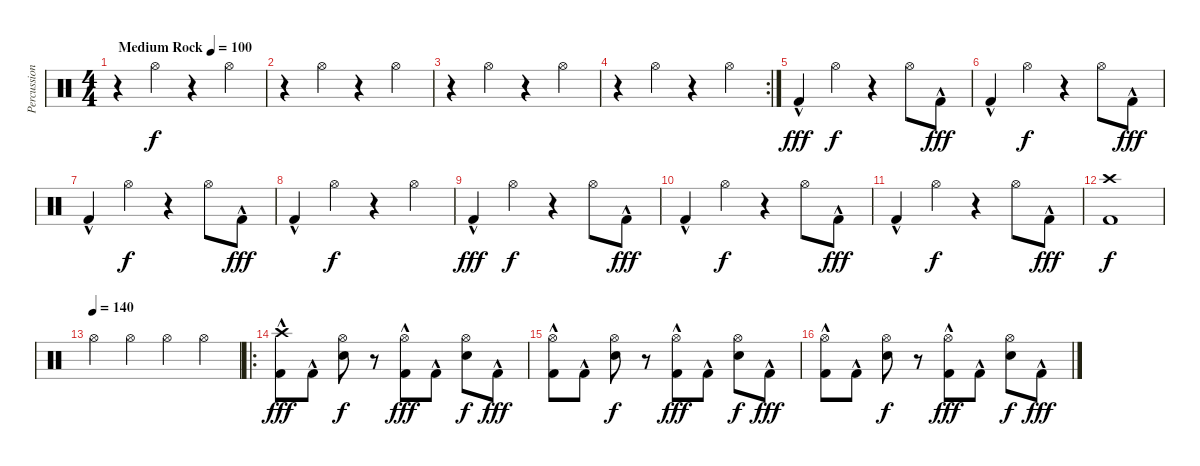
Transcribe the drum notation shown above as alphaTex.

\track ("Percussion" "Percussion") {instrument percussion}
\staff {score}
\articulation defaults
\ts (4 4)
\tempo (100 "Medium Rock")
\clef neutral
\ks c
r.4{dy f} "Hi-Hat (open)".4 r.4 "Hi-Hat (open)".4 |
r.4 "Hi-Hat (open)".4 r.4 "Hi-Hat (open)".4 |
r.4 "Hi-Hat (open)".4 r.4 "Hi-Hat (open)".4 |
\rc 2
r.4 "Hi-Hat (open)".4 r.4 "Hi-Hat (open)".4 |
"Kick (hit) 2"{hac}.4{dy fff} "Hi-Hat (open)".4{dy f} r.4 "Hi-Hat (open)".8 "Kick (hit) 2"{hac}.8{dy fff} |
"Kick (hit) 2"{hac}.4 "Hi-Hat (open)".4{dy f} r.4 "Hi-Hat (open)".8 "Kick (hit) 2"{hac}.8{dy fff} |
"Kick (hit) 2"{hac}.4 "Hi-Hat (open)".4{dy f} r.4 "Hi-Hat (open)".8 "Kick (hit) 2"{hac}.8{dy fff} |
"Kick (hit) 2"{hac}.4 "Hi-Hat (open)".4{dy f} r.4 "Hi-Hat (open)".4 |
"Kick (hit) 2"{hac}.4{dy fff} "Hi-Hat (open)".4{dy f} r.4 "Hi-Hat (open)".8 "Kick (hit) 2"{hac}.8{dy fff} |
"Kick (hit) 2"{hac}.4 "Hi-Hat (open)".4{dy f} r.4 "Hi-Hat (open)".8 "Kick (hit) 2"{hac}.8{dy fff} |
"Kick (hit) 2"{hac}.4 "Hi-Hat (open)".4{dy f} r.4 "Hi-Hat (open)".8 "Kick (hit) 2"{hac}.8{dy fff} |
("Crash high (hit)" "Kick (hit) 2").1{dy f} |
\tempo (140)
"Hi-Hat (open)".4 "Hi-Hat (open)".4 "Hi-Hat (open)".4 "Hi-Hat (open)".4 |
\ro
("Crash high (hit)" "Kick (hit) 2"{hac}).8{dy fff} "Kick (hit) 2"{hac}.8 ("Hi-Hat (open)" "Electric Snare (hit)").8{dy f} r.8 ("Hi-Hat (open)" "Kick (hit) 2"{hac}).8{dy fff} "Kick (hit) 2"{hac}.8 ("Hi-Hat (open)" "Electric Snare (hit)").8{dy f} "Kick (hit) 2"{hac}.8{dy fff} |
("Hi-Hat (open)" "Kick (hit) 2"{hac}).8 "Kick (hit) 2"{hac}.8 ("Hi-Hat (open)" "Electric Snare (hit)").8{dy f} r.8 ("Hi-Hat (open)" "Kick (hit) 2"{hac}).8{dy fff} "Kick (hit) 2"{hac}.8 ("Hi-Hat (open)" "Electric Snare (hit)").8{dy f} "Kick (hit) 2"{hac}.8{dy fff} |
("Hi-Hat (open)" "Kick (hit) 2"{hac}).8 "Kick (hit) 2"{hac}.8 ("Hi-Hat (open)" "Electric Snare (hit)").8{dy f} r.8 ("Hi-Hat (open)" "Kick (hit) 2"{hac}).8{dy fff} "Kick (hit) 2"{hac}.8 ("Hi-Hat (open)" "Electric Snare (hit)").8{dy f} "Kick (hit) 2"{hac}.8{dy fff}
